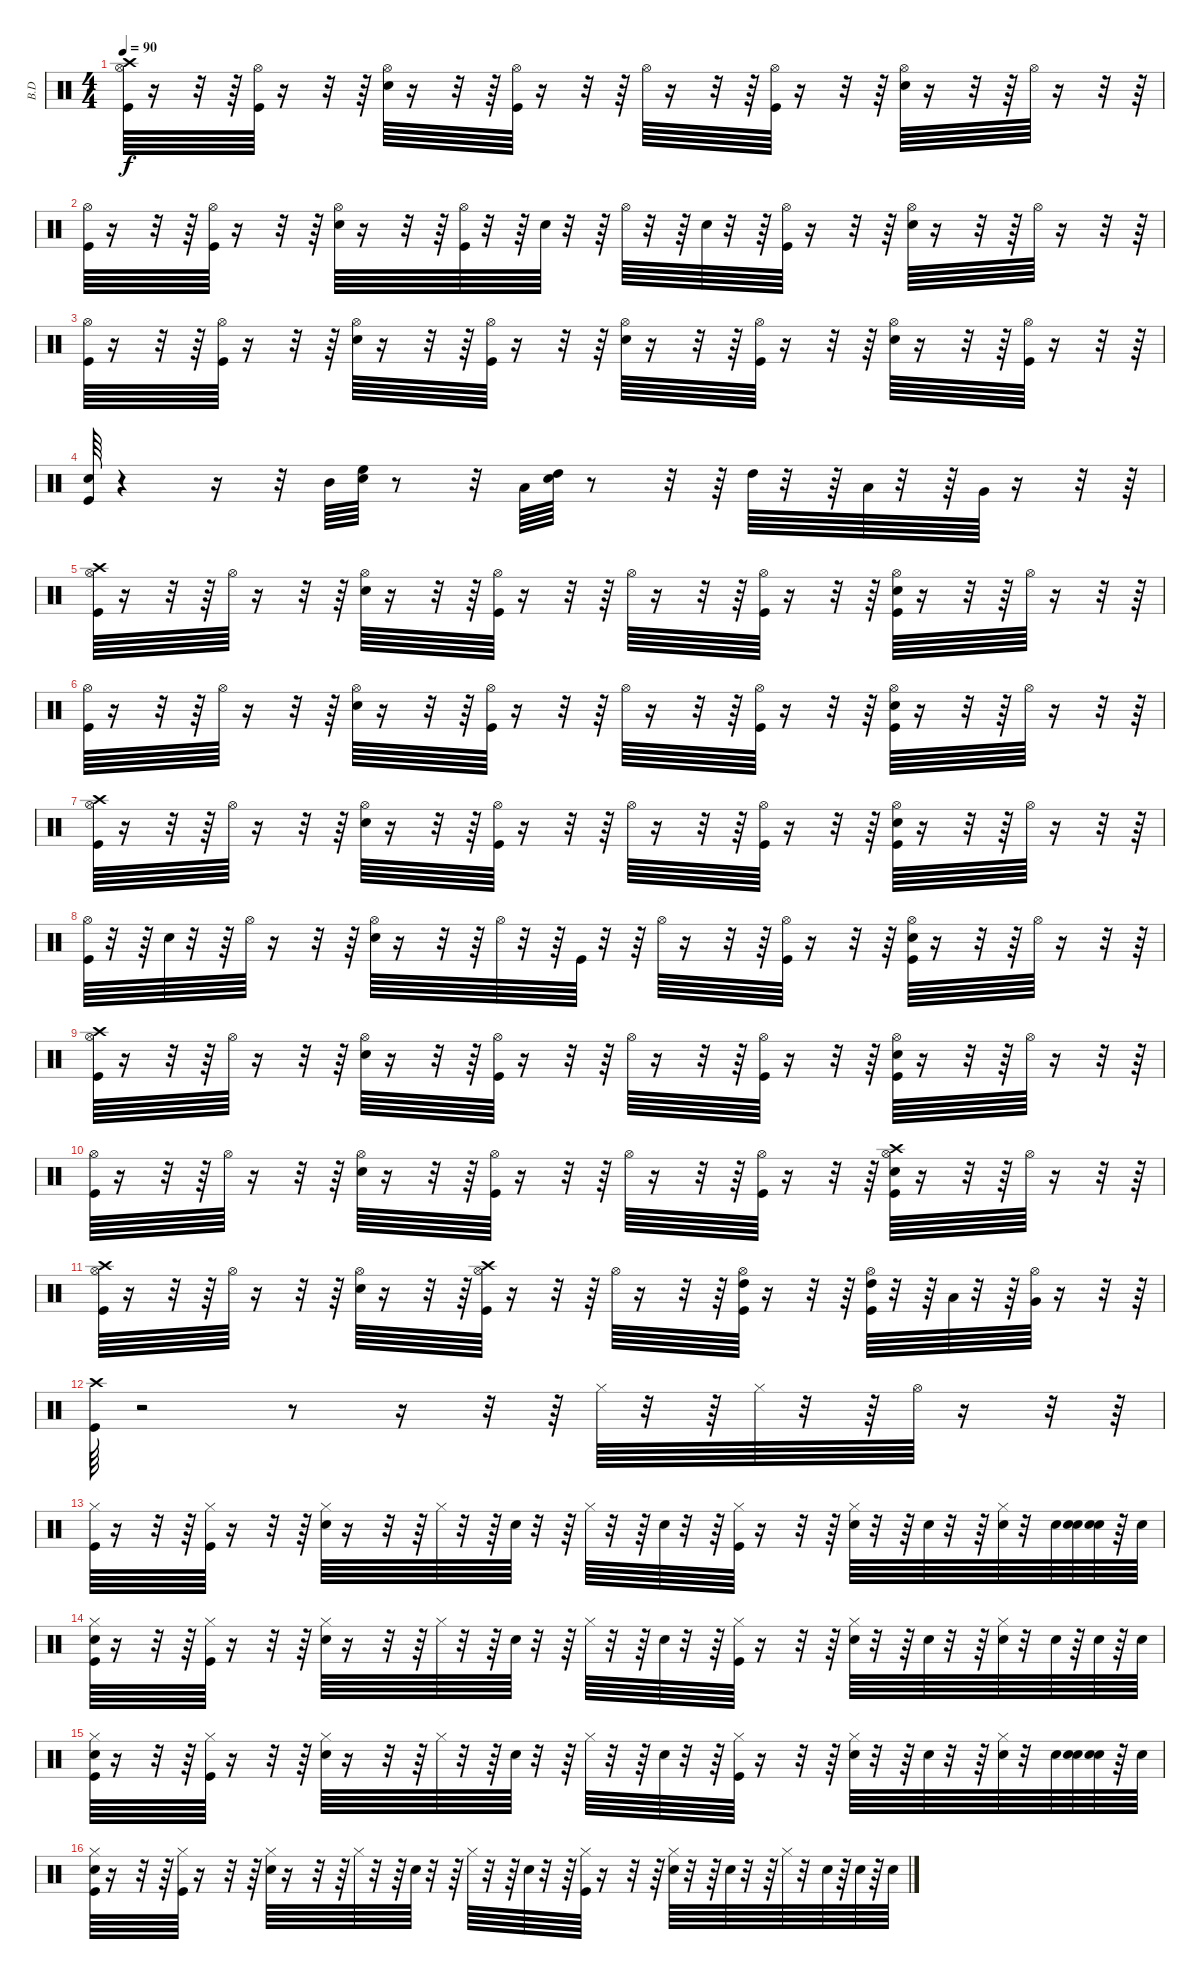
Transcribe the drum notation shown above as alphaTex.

\track ("B.D" "B.D") {instrument percussion}
\staff {score}
\articulation defaults
\ts (4 4)
\tempo 90
\clef neutral
\ks c
("Kick (hit)" "Hi-Hat (open)" "Crash high (hit)").64{dy f} r.16 r.32 r.64 ("Kick (hit)" "Hi-Hat (open)").64 r.16 r.32 r.64 ("Electric Snare (hit)" "Hi-Hat (open)").64 r.16 r.32 r.64 ("Kick (hit)" "Hi-Hat (open)").64 r.16 r.32 r.64 "Hi-Hat (open)".64 r.16 r.32 r.64 ("Kick (hit)" "Hi-Hat (open)").64 r.16 r.32 r.64 ("Electric Snare (hit)" "Hi-Hat (open)").64 r.16 r.32 r.64 "Hi-Hat (open)".64 r.16 r.32 r.64 |
("Kick (hit)" "Hi-Hat (open)").64 r.16 r.32 r.64 ("Kick (hit)" "Hi-Hat (open)").64 r.16 r.32 r.64 ("Electric Snare (hit)" "Hi-Hat (open)").64 r.16 r.32 r.64 ("Kick (hit)" "Hi-Hat (open)").64 r.32 r.64 "Electric Snare (hit)".64 r.32 r.64 "Hi-Hat (open)".64 r.32 r.64 "Electric Snare (hit)".64 r.32 r.64 ("Kick (hit)" "Hi-Hat (open)").64 r.16 r.32 r.64 ("Electric Snare (hit)" "Hi-Hat (open)").64 r.16 r.32 r.64 "Hi-Hat (open)".64 r.16 r.32 r.64 |
("Kick (hit)" "Hi-Hat (open)").64 r.16 r.32 r.64 ("Kick (hit)" "Hi-Hat (open)").64 r.16 r.32 r.64 ("Electric Snare (hit)" "Hi-Hat (open)").64 r.16 r.32 r.64 ("Kick (hit)" "Hi-Hat (open)").64 r.16 r.32 r.64 ("Electric Snare (hit)" "Hi-Hat (open)").64 r.16 r.32 r.64 ("Kick (hit)" "Hi-Hat (open)").64 r.16 r.32 r.64 ("Electric Snare (hit)" "Hi-Hat (open)").64 r.16 r.32 r.64 ("Kick (hit)" "Hi-Hat (open)").64 r.16 r.32 r.64 |
("Electric Snare (hit)" "Kick (hit)").64 r.4 r.16 r.32 "Mid Tom (hit)".64 ("Snare (hit)" "High Floor Tom (hit)").64 r.8 r.32 "Low Tom (hit)".64 ("Snare (hit)" "High Tom (hit)").64 r.8 r.32 r.64 "High Tom (hit)".64 r.32 r.64 "Low Tom (hit)".64 r.32 r.64 "Very Low Tom (hit)".64 r.16 r.32 r.64 |
("Kick (hit)" "Hi-Hat (open)" "Crash high (hit)").64 r.16 r.32 r.64 "Hi-Hat (open)".64 r.16 r.32 r.64 ("Electric Snare (hit)" "Hi-Hat (open)").64 r.16 r.32 r.64 ("Kick (hit)" "Hi-Hat (open)").64 r.16 r.32 r.64 "Hi-Hat (open)".64 r.16 r.32 r.64 ("Kick (hit)" "Hi-Hat (open)").64 r.16 r.32 r.64 ("Kick (hit)" "Electric Snare (hit)" "Hi-Hat (open)").64 r.16 r.32 r.64 "Hi-Hat (open)".64 r.16 r.32 r.64 |
("Kick (hit)" "Hi-Hat (open)").64 r.16 r.32 r.64 "Hi-Hat (open)".64 r.16 r.32 r.64 ("Electric Snare (hit)" "Hi-Hat (open)").64 r.16 r.32 r.64 ("Kick (hit)" "Hi-Hat (open)").64 r.16 r.32 r.64 "Hi-Hat (open)".64 r.16 r.32 r.64 ("Kick (hit)" "Hi-Hat (open)").64 r.16 r.32 r.64 ("Kick (hit)" "Electric Snare (hit)" "Hi-Hat (open)").64 r.16 r.32 r.64 "Hi-Hat (open)".64 r.16 r.32 r.64 |
("Kick (hit)" "Hi-Hat (open)" "Crash high (hit)").64 r.16 r.32 r.64 "Hi-Hat (open)".64 r.16 r.32 r.64 ("Electric Snare (hit)" "Hi-Hat (open)").64 r.16 r.32 r.64 ("Kick (hit)" "Hi-Hat (open)").64 r.16 r.32 r.64 "Hi-Hat (open)".64 r.16 r.32 r.64 ("Kick (hit)" "Hi-Hat (open)").64 r.16 r.32 r.64 ("Kick (hit)" "Electric Snare (hit)" "Hi-Hat (open)").64 r.16 r.32 r.64 "Hi-Hat (open)".64 r.16 r.32 r.64 |
("Kick (hit)" "Hi-Hat (open)").64 r.32 r.64 "Electric Snare (hit)".64 r.32 r.64 "Hi-Hat (open)".64 r.16 r.32 r.64 ("Electric Snare (hit)" "Hi-Hat (open)").64 r.16 r.32 r.64 "Hi-Hat (open)".64 r.32 r.64 "Kick (hit)".64 r.32 r.64 "Hi-Hat (open)".64 r.16 r.32 r.64 ("Kick (hit)" "Hi-Hat (open)").64 r.16 r.32 r.64 ("Kick (hit)" "Electric Snare (hit)" "Hi-Hat (open)").64 r.16 r.32 r.64 "Hi-Hat (open)".64 r.16 r.32 r.64 |
("Kick (hit)" "Hi-Hat (open)" "Crash high (hit)").64 r.16 r.32 r.64 "Hi-Hat (open)".64 r.16 r.32 r.64 ("Electric Snare (hit)" "Hi-Hat (open)").64 r.16 r.32 r.64 ("Kick (hit)" "Hi-Hat (open)").64 r.16 r.32 r.64 "Hi-Hat (open)".64 r.16 r.32 r.64 ("Kick (hit)" "Hi-Hat (open)").64 r.16 r.32 r.64 ("Kick (hit)" "Electric Snare (hit)" "Hi-Hat (open)").64 r.16 r.32 r.64 "Hi-Hat (open)".64 r.16 r.32 r.64 |
("Kick (hit)" "Hi-Hat (open)").64 r.16 r.32 r.64 "Hi-Hat (open)".64 r.16 r.32 r.64 ("Electric Snare (hit)" "Hi-Hat (open)").64 r.16 r.32 r.64 ("Kick (hit)" "Hi-Hat (open)").64 r.16 r.32 r.64 "Hi-Hat (open)".64 r.16 r.32 r.64 ("Kick (hit)" "Hi-Hat (open)").64 r.16 r.32 r.64 ("Kick (hit)" "Electric Snare (hit)" "Hi-Hat (open)" "Crash high (hit)").64 r.16 r.32 r.64 "Hi-Hat (open)".64 r.16 r.32 r.64 |
("Kick (hit)" "Hi-Hat (open)" "Crash high (hit)").64 r.16 r.32 r.64 "Hi-Hat (open)".64 r.16 r.32 r.64 ("Electric Snare (hit)" "Hi-Hat (open)").64 r.16 r.32 r.64 ("Kick (hit)" "Hi-Hat (open)" "Crash high (hit)").64 r.16 r.32 r.64 "Hi-Hat (open)".64 r.16 r.32 r.64 ("Kick (hit)" "Hi-Hat (open)" "High Tom (hit)").64 r.16 r.32 r.64 ("Kick (hit)" "Hi-Hat (open)" "High Tom (hit)").64 r.32 r.64 "Low Tom (hit)".64 r.32 r.64 ("Hi-Hat (open)" "Very Low Tom (hit)").64 r.16 r.32 r.64 |
("Kick (hit)" "Crash high (hit)").64 r.2 r.8 r.16 r.32 r.64 "Hi-Hat (closed)".64 r.32 r.64 "Hi-Hat (closed)".64 r.32 r.64 "Hi-Hat (open)".64 r.16 r.32 r.64 |
("Kick (hit)" "Hi-Hat (closed)").64 r.16 r.32 r.64 ("Kick (hit)" "Hi-Hat (closed)").64 r.16 r.32 r.64 ("Electric Snare (hit)" "Hi-Hat (closed)").64 r.16 r.32 r.64 "Hi-Hat (closed)".64 r.32 r.64 "Electric Snare (hit)".64 r.32 r.64 "Hi-Hat (closed)".64 r.32 r.64 "Electric Snare (hit)".64 r.32 r.64 ("Kick (hit)" "Hi-Hat (closed)").64 r.16 r.32 r.64 ("Electric Snare (hit)" "Hi-Hat (closed)").64 r.32 r.64 "Electric Snare (hit)".64 r.32 r.64 ("Electric Snare (hit)" "Hi-Hat (closed)").64 r.32 "Electric Snare (hit)".64 ("Snare (hit)" "Electric Snare (hit)").64 ("Snare (hit)" "Electric Snare (hit)").64 r.64 "Electric Snare (hit)".64 |
("Snare (hit)" "Kick (hit)" "Hi-Hat (closed)").64 r.16 r.32 r.64 ("Kick (hit)" "Hi-Hat (closed)").64 r.16 r.32 r.64 ("Electric Snare (hit)" "Hi-Hat (closed)").64 r.16 r.32 r.64 "Hi-Hat (closed)".64 r.32 r.64 "Electric Snare (hit)".64 r.32 r.64 "Hi-Hat (closed)".64 r.32 r.64 "Electric Snare (hit)".64 r.32 r.64 ("Kick (hit)" "Hi-Hat (closed)").64 r.16 r.32 r.64 ("Electric Snare (hit)" "Hi-Hat (closed)").64 r.32 r.64 "Electric Snare (hit)".64 r.32 r.64 ("Electric Snare (hit)" "Hi-Hat (closed)").64 r.32 "Electric Snare (hit)".64 r.64 "Electric Snare (hit)".64 r.64 "Electric Snare (hit)".64 |
("Snare (hit)" "Kick (hit)" "Hi-Hat (closed)").64 r.16 r.32 r.64 ("Kick (hit)" "Hi-Hat (closed)").64 r.16 r.32 r.64 ("Electric Snare (hit)" "Hi-Hat (closed)").64 r.16 r.32 r.64 "Hi-Hat (closed)".64 r.32 r.64 "Electric Snare (hit)".64 r.32 r.64 "Hi-Hat (closed)".64 r.32 r.64 "Electric Snare (hit)".64 r.32 r.64 ("Kick (hit)" "Hi-Hat (closed)").64 r.16 r.32 r.64 ("Electric Snare (hit)" "Hi-Hat (closed)").64 r.32 r.64 "Electric Snare (hit)".64 r.32 r.64 ("Electric Snare (hit)" "Hi-Hat (closed)").64 r.32 "Electric Snare (hit)".64 ("Snare (hit)" "Electric Snare (hit)").64 ("Snare (hit)" "Electric Snare (hit)").64 r.64 "Electric Snare (hit)".64 |
("Snare (hit)" "Kick (hit)" "Hi-Hat (closed)").64 r.16 r.32 r.64 ("Kick (hit)" "Hi-Hat (closed)").64 r.16 r.32 r.64 ("Electric Snare (hit)" "Hi-Hat (closed)").64 r.16 r.32 r.64 "Hi-Hat (closed)".64 r.32 r.64 "Electric Snare (hit)".64 r.32 r.64 "Hi-Hat (closed)".64 r.32 r.64 "Electric Snare (hit)".64 r.32 r.64 ("Kick (hit)" "Hi-Hat (closed)").64 r.16 r.32 r.64 ("Electric Snare (hit)" "Hi-Hat (closed)").64 r.32 r.64 "Electric Snare (hit)".64 r.32 r.64 "Hi-Hat (closed)".64 r.32 "Electric Snare (hit)".64 r.64 "Electric Snare (hit)".64 r.64 "Electric Snare (hit)".64
